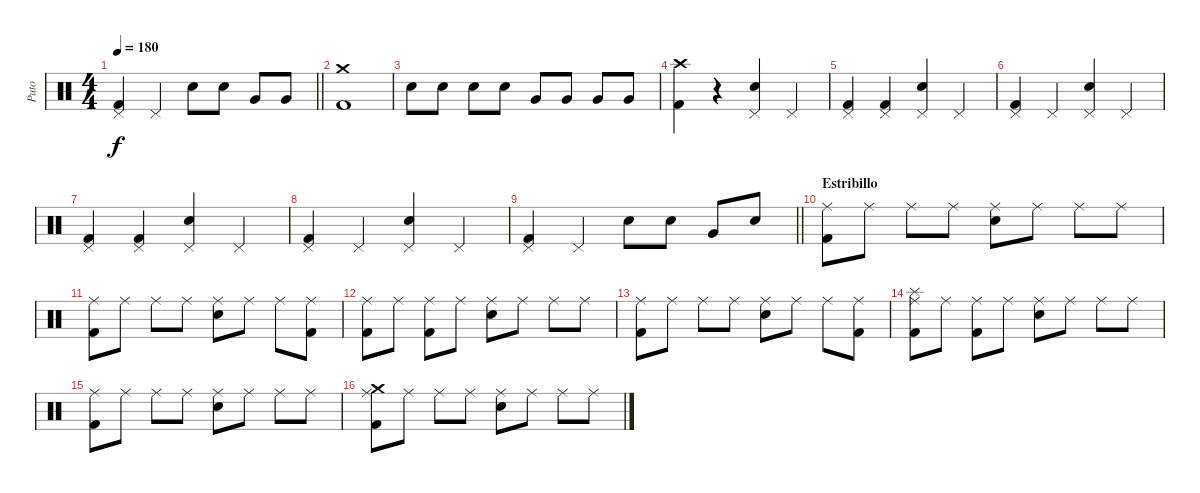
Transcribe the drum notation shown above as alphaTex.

\track ("Puto" "Puto") {instrument percussion}
\staff {score}
\articulation defaults
\ts (4 4)
\tempo 180
\clef neutral
\barLineRight lightlight
\ks c
("Kick (hit) 2" "Pedal Hi-Hat (hit)").4{dy f} "Pedal Hi-Hat (hit)".4 "Snare (hit) 2".8 "Snare (hit) 2".8 "Very Low Tom (hit)".8 "Very Low Tom (hit)".8 |
("Kick (hit) 2" "Crash medium (hit)").1 |
"Snare (hit) 2".8 "Snare (hit) 2".8 "Snare (hit) 2".8 "Snare (hit) 2".8 "Very Low Tom (hit)".8 "Very Low Tom (hit)".8 "Very Low Tom (hit)".8 "Very Low Tom (hit)".8 |
("Kick (hit) 2" "Crash high (hit)").4 r.4 ("Snare (hit) 2" "Pedal Hi-Hat (hit)").4 "Pedal Hi-Hat (hit)".4 |
("Kick (hit) 2" "Pedal Hi-Hat (hit)").4 ("Kick (hit) 2" "Pedal Hi-Hat (hit)").4 ("Snare (hit) 2" "Pedal Hi-Hat (hit)").4 "Pedal Hi-Hat (hit)".4 |
("Kick (hit) 2" "Pedal Hi-Hat (hit)").4 "Pedal Hi-Hat (hit)".4 ("Snare (hit) 2" "Pedal Hi-Hat (hit)").4 "Pedal Hi-Hat (hit)".4 |
("Kick (hit) 2" "Pedal Hi-Hat (hit)").4 ("Kick (hit) 2" "Pedal Hi-Hat (hit)").4 ("Snare (hit) 2" "Pedal Hi-Hat (hit)").4 "Pedal Hi-Hat (hit)".4 |
("Kick (hit) 2" "Pedal Hi-Hat (hit)").4 "Pedal Hi-Hat (hit)".4 ("Snare (hit) 2" "Pedal Hi-Hat (hit)").4 "Pedal Hi-Hat (hit)".4 |
\barLineRight lightlight
("Kick (hit) 2" "Pedal Hi-Hat (hit)").4 "Pedal Hi-Hat (hit)".4 "Snare (hit) 2".8 "Snare (hit) 2".8 "Very Low Tom (hit)".8 "Snare (hit) 2".8 |
\section ("" "Estribillo")
("Kick (hit) 2" "Ride (middle)").8 "Ride (middle)".8 "Ride (middle)".8 "Ride (middle)".8 ("Snare (hit) 2" "Ride (middle)").8 "Ride (middle)".8 "Ride (middle)".8 "Ride (middle)".8 |
("Kick (hit) 2" "Ride (middle)").8 "Ride (middle)".8 "Ride (middle)".8 "Ride (middle)".8 ("Snare (hit) 2" "Ride (middle)").8 "Ride (middle)".8 "Ride (middle)".8 ("Kick (hit) 2" "Ride (middle)").8 |
("Kick (hit) 2" "Ride (middle)").8 "Ride (middle)".8 ("Kick (hit) 2" "Ride (middle)").8 "Ride (middle)".8 ("Snare (hit) 2" "Ride (middle)").8 "Ride (middle)".8 "Ride (middle)".8 "Ride (middle)".8 |
("Kick (hit) 2" "Ride (middle)").8 "Ride (middle)".8 "Ride (middle)".8 "Ride (middle)".8 ("Snare (hit) 2" "Ride (middle)").8 "Ride (middle)".8 "Ride (middle)".8 ("Kick (hit) 2" "Ride (middle)").8 |
("Kick (hit) 2" "Splash (hit)" "Ride (middle)").8 "Ride (middle)".8 ("Kick (hit) 2" "Ride (middle)").8 "Ride (middle)".8 ("Snare (hit) 2" "Ride (middle)").8 "Ride (middle)".8 "Ride (middle)".8 "Ride (middle)".8 |
("Kick (hit) 2" "Ride (middle)").8 "Ride (middle)".8 "Ride (middle)".8 "Ride (middle)".8 ("Snare (hit) 2" "Ride (middle)").8 "Ride (middle)".8 "Ride (middle)".8 "Ride (middle)".8 |
("Kick (hit) 2" "Crash medium (hit)" "Ride (middle)").8 "Ride (middle)".8 "Ride (middle)".8 "Ride (middle)".8 ("Snare (hit) 2" "Ride (middle)").8 "Ride (middle)".8 "Ride (middle)".8 "Ride (middle)".8
